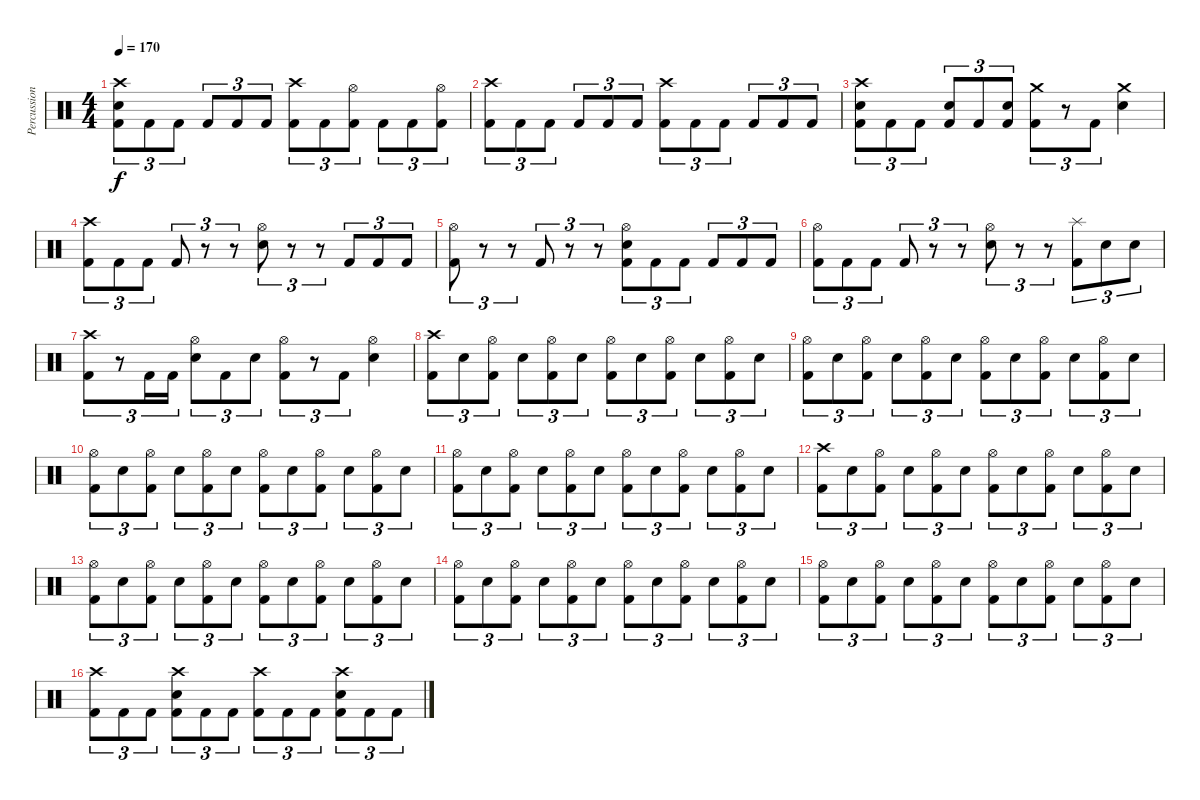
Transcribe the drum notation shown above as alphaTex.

\track ("Percussion" "Percussion") {instrument percussion}
\staff {score}
\articulation defaults
\ts (4 4)
\tempo 170
\clef neutral
\ks c
("Crash high (hit)" "Electric Snare (hit)" "Kick (hit) 2").8{tu (3 2) dy f} "Kick (hit) 2".8{tu (3 2)} "Kick (hit) 2".8{tu (3 2)} "Kick (hit) 2".8{tu (3 2)} "Kick (hit) 2".8{tu (3 2)} "Kick (hit) 2".8{tu (3 2)} ("Crash high (hit)" "Kick (hit) 2").8{tu (3 2)} "Kick (hit) 2".8{tu (3 2)} ("Hi-Hat (open)" "Kick (hit) 2").8{tu (3 2)} "Kick (hit) 2".8{tu (3 2)} "Kick (hit) 2".8{tu (3 2)} ("Hi-Hat (open)" "Kick (hit) 2").8{tu (3 2)} |
("Crash high (hit)" "Kick (hit) 2").8{tu (3 2)} "Kick (hit) 2".8{tu (3 2)} "Kick (hit) 2".8{tu (3 2)} "Kick (hit) 2".8{tu (3 2)} "Kick (hit) 2".8{tu (3 2)} "Kick (hit) 2".8{tu (3 2)} ("Crash high (hit)" "Kick (hit) 2").8{tu (3 2)} "Kick (hit) 2".8{tu (3 2)} "Kick (hit) 2".8{tu (3 2)} "Kick (hit) 2".8{tu (3 2)} "Kick (hit) 2".8{tu (3 2)} "Kick (hit) 2".8{tu (3 2)} |
("Crash high (hit)" "Electric Snare (hit)" "Kick (hit) 2").8{tu (3 2)} "Kick (hit) 2".8{tu (3 2)} "Kick (hit) 2".8{tu (3 2)} ("Electric Snare (hit)" "Kick (hit) 2").8{tu (3 2)} "Kick (hit) 2".8{tu (3 2)} ("Electric Snare (hit)" "Kick (hit) 2").8{tu (3 2)} ("Crash medium (hit)" "Kick (hit) 2").8{tu (3 2)} r.8{tu (3 2)} "Kick (hit) 2".8{tu (3 2)} ("Crash medium (hit)" "Electric Snare (hit)").4 |
("Crash high (hit)" "Kick (hit) 2").8{tu (3 2)} "Kick (hit) 2".8{tu (3 2)} "Kick (hit) 2".8{tu (3 2)} "Kick (hit) 2".8{tu (3 2)} r.8{tu (3 2)} r.8{tu (3 2)} ("Hi-Hat (open)" "Electric Snare (hit)").8{tu (3 2)} r.8{tu (3 2)} r.8{tu (3 2)} "Kick (hit) 2".8{tu (3 2)} "Kick (hit) 2".8{tu (3 2)} "Kick (hit) 2".8{tu (3 2)} |
("Hi-Hat (open)" "Kick (hit) 2").8{tu (3 2)} r.8{tu (3 2)} r.8{tu (3 2)} "Kick (hit) 2".8{tu (3 2)} r.8{tu (3 2)} r.8{tu (3 2)} ("Hi-Hat (open)" "Electric Snare (hit)" "Kick (hit) 2").8{tu (3 2)} "Kick (hit) 2".8{tu (3 2)} "Kick (hit) 2".8{tu (3 2)} "Kick (hit) 2".8{tu (3 2)} "Kick (hit) 2".8{tu (3 2)} "Kick (hit) 2".8{tu (3 2)} |
("Hi-Hat (open)" "Kick (hit) 2").8{tu (3 2)} "Kick (hit) 2".8{tu (3 2)} "Kick (hit) 2".8{tu (3 2)} "Kick (hit) 2".8{tu (3 2)} r.8{tu (3 2)} r.8{tu (3 2)} ("Hi-Hat (open)" "Electric Snare (hit)").8{tu (3 2)} r.8{tu (3 2)} r.8{tu (3 2)} ("Splash (hit)" "Kick (hit) 2").8{tu (3 2)} "Electric Snare (hit)".8{tu (3 2)} "Electric Snare (hit)".8{tu (3 2)} |
("Crash high (hit)" "Kick (hit) 2").8{tu (3 2)} r.8{tu (3 2)} "Kick (hit) 2".16{tu (3 2)} "Kick (hit) 2".16{tu (3 2)} ("Hi-Hat (open)" "Electric Snare (hit)").8{tu (3 2)} "Kick (hit) 2".8{tu (3 2)} "Electric Snare (hit)".8{tu (3 2)} ("Hi-Hat (open)" "Kick (hit) 2").8{tu (3 2)} r.8{tu (3 2)} "Kick (hit) 2".8{tu (3 2)} ("Hi-Hat (open)" "Electric Snare (hit)").4 |
("Crash high (hit)" "Kick (hit) 2").8{tu (3 2)} "Electric Snare (hit)".8{tu (3 2)} ("Hi-Hat (open)" "Kick (hit) 2").8{tu (3 2)} "Electric Snare (hit)".8{tu (3 2)} ("Hi-Hat (open)" "Kick (hit) 2").8{tu (3 2)} "Electric Snare (hit)".8{tu (3 2)} ("Hi-Hat (open)" "Kick (hit) 2").8{tu (3 2)} "Electric Snare (hit)".8{tu (3 2)} ("Hi-Hat (open)" "Kick (hit) 2").8{tu (3 2)} "Electric Snare (hit)".8{tu (3 2)} ("Hi-Hat (open)" "Kick (hit) 2").8{tu (3 2)} "Electric Snare (hit)".8{tu (3 2)} |
("Hi-Hat (open)" "Kick (hit) 2").8{tu (3 2)} "Electric Snare (hit)".8{tu (3 2)} ("Hi-Hat (open)" "Kick (hit) 2").8{tu (3 2)} "Electric Snare (hit)".8{tu (3 2)} ("Hi-Hat (open)" "Kick (hit) 2").8{tu (3 2)} "Electric Snare (hit)".8{tu (3 2)} ("Hi-Hat (open)" "Kick (hit) 2").8{tu (3 2)} "Electric Snare (hit)".8{tu (3 2)} ("Hi-Hat (open)" "Kick (hit) 2").8{tu (3 2)} "Electric Snare (hit)".8{tu (3 2)} ("Hi-Hat (open)" "Kick (hit) 2").8{tu (3 2)} "Electric Snare (hit)".8{tu (3 2)} |
("Hi-Hat (open)" "Kick (hit) 2").8{tu (3 2)} "Electric Snare (hit)".8{tu (3 2)} ("Hi-Hat (open)" "Kick (hit) 2").8{tu (3 2)} "Electric Snare (hit)".8{tu (3 2)} ("Hi-Hat (open)" "Kick (hit) 2").8{tu (3 2)} "Electric Snare (hit)".8{tu (3 2)} ("Hi-Hat (open)" "Kick (hit) 2").8{tu (3 2)} "Electric Snare (hit)".8{tu (3 2)} ("Hi-Hat (open)" "Kick (hit) 2").8{tu (3 2)} "Electric Snare (hit)".8{tu (3 2)} ("Hi-Hat (open)" "Kick (hit) 2").8{tu (3 2)} "Electric Snare (hit)".8{tu (3 2)} |
("Hi-Hat (open)" "Kick (hit) 2").8{tu (3 2)} "Electric Snare (hit)".8{tu (3 2)} ("Hi-Hat (open)" "Kick (hit) 2").8{tu (3 2)} "Electric Snare (hit)".8{tu (3 2)} ("Hi-Hat (open)" "Kick (hit) 2").8{tu (3 2)} "Electric Snare (hit)".8{tu (3 2)} ("Hi-Hat (open)" "Kick (hit) 2").8{tu (3 2)} "Electric Snare (hit)".8{tu (3 2)} ("Hi-Hat (open)" "Kick (hit) 2").8{tu (3 2)} "Electric Snare (hit)".8{tu (3 2)} ("Hi-Hat (open)" "Kick (hit) 2").8{tu (3 2)} "Electric Snare (hit)".8{tu (3 2)} |
("Crash high (hit)" "Kick (hit) 2").8{tu (3 2)} "Electric Snare (hit)".8{tu (3 2)} ("Hi-Hat (open)" "Kick (hit) 2").8{tu (3 2)} "Electric Snare (hit)".8{tu (3 2)} ("Hi-Hat (open)" "Kick (hit) 2").8{tu (3 2)} "Electric Snare (hit)".8{tu (3 2)} ("Hi-Hat (open)" "Kick (hit) 2").8{tu (3 2)} "Electric Snare (hit)".8{tu (3 2)} ("Hi-Hat (open)" "Kick (hit) 2").8{tu (3 2)} "Electric Snare (hit)".8{tu (3 2)} ("Hi-Hat (open)" "Kick (hit) 2").8{tu (3 2)} "Electric Snare (hit)".8{tu (3 2)} |
("Hi-Hat (open)" "Kick (hit) 2").8{tu (3 2)} "Electric Snare (hit)".8{tu (3 2)} ("Hi-Hat (open)" "Kick (hit) 2").8{tu (3 2)} "Electric Snare (hit)".8{tu (3 2)} ("Hi-Hat (open)" "Kick (hit) 2").8{tu (3 2)} "Electric Snare (hit)".8{tu (3 2)} ("Hi-Hat (open)" "Kick (hit) 2").8{tu (3 2)} "Electric Snare (hit)".8{tu (3 2)} ("Hi-Hat (open)" "Kick (hit) 2").8{tu (3 2)} "Electric Snare (hit)".8{tu (3 2)} ("Hi-Hat (open)" "Kick (hit) 2").8{tu (3 2)} "Electric Snare (hit)".8{tu (3 2)} |
("Hi-Hat (open)" "Kick (hit) 2").8{tu (3 2)} "Electric Snare (hit)".8{tu (3 2)} ("Hi-Hat (open)" "Kick (hit) 2").8{tu (3 2)} "Electric Snare (hit)".8{tu (3 2)} ("Hi-Hat (open)" "Kick (hit) 2").8{tu (3 2)} "Electric Snare (hit)".8{tu (3 2)} ("Hi-Hat (open)" "Kick (hit) 2").8{tu (3 2)} "Electric Snare (hit)".8{tu (3 2)} ("Hi-Hat (open)" "Kick (hit) 2").8{tu (3 2)} "Electric Snare (hit)".8{tu (3 2)} ("Hi-Hat (open)" "Kick (hit) 2").8{tu (3 2)} "Electric Snare (hit)".8{tu (3 2)} |
("Hi-Hat (open)" "Kick (hit) 2").8{tu (3 2)} "Electric Snare (hit)".8{tu (3 2)} ("Hi-Hat (open)" "Kick (hit) 2").8{tu (3 2)} "Electric Snare (hit)".8{tu (3 2)} ("Hi-Hat (open)" "Kick (hit) 2").8{tu (3 2)} "Electric Snare (hit)".8{tu (3 2)} ("Hi-Hat (open)" "Kick (hit) 2").8{tu (3 2)} "Electric Snare (hit)".8{tu (3 2)} ("Hi-Hat (open)" "Kick (hit) 2").8{tu (3 2)} "Electric Snare (hit)".8{tu (3 2)} ("Hi-Hat (open)" "Kick (hit) 2").8{tu (3 2)} "Electric Snare (hit)".8{tu (3 2)} |
("Crash high (hit)" "Kick (hit) 2").8{tu (3 2)} "Kick (hit) 2".8{tu (3 2)} "Kick (hit) 2".8{tu (3 2)} ("Crash high (hit)" "Electric Snare (hit)" "Kick (hit) 2").8{tu (3 2)} "Kick (hit) 2".8{tu (3 2)} "Kick (hit) 2".8{tu (3 2)} ("Crash high (hit)" "Kick (hit) 2").8{tu (3 2)} "Kick (hit) 2".8{tu (3 2)} "Kick (hit) 2".8{tu (3 2)} ("Crash high (hit)" "Electric Snare (hit)" "Kick (hit) 2").8{tu (3 2)} "Kick (hit) 2".8{tu (3 2)} "Kick (hit) 2".8{tu (3 2)}
